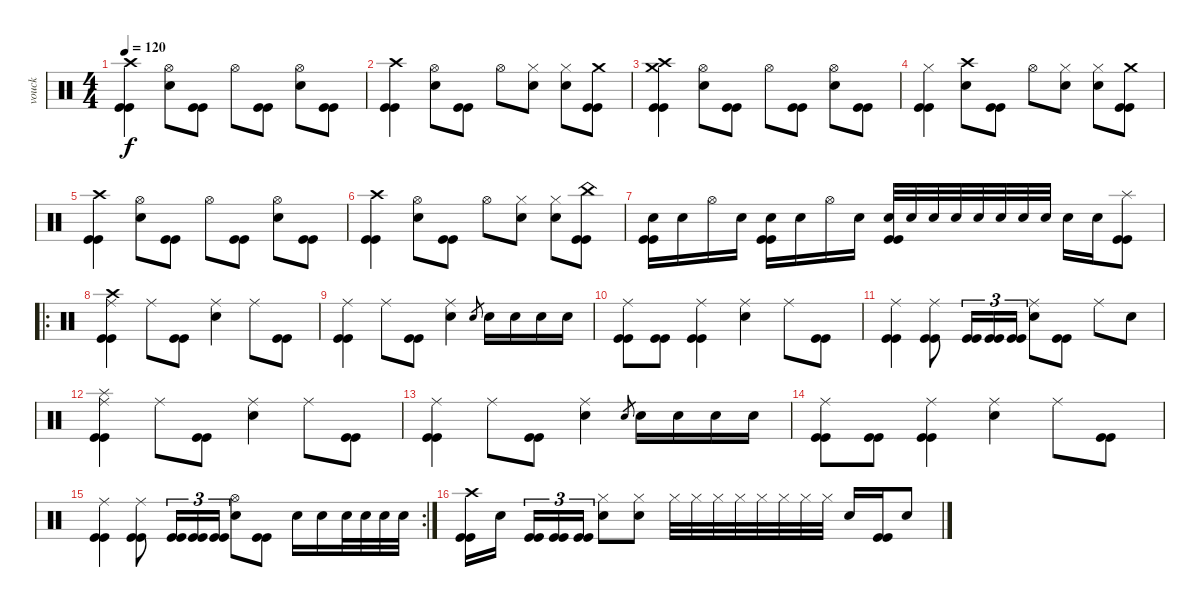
\track ("vouck" "vouck") {instrument percussion}
\staff {score}
\articulation defaults
\ts (4 4)
\tempo 120
\clef neutral
\ks c
("Crash high (hit)" "Kick (hit)" "Kick (hit)").4{dy f} ("Hi-Hat (open)" "Electric Snare (hit)").8 ("Kick (hit)" "Kick (hit)").8 "Hi-Hat (open)".8 ("Kick (hit)" "Kick (hit)").8 ("Hi-Hat (open)" "Electric Snare (hit)").8 ("Kick (hit)" "Kick (hit)").8 |
("Crash high (hit)" "Kick (hit)" "Kick (hit)").4 ("Hi-Hat (open)" "Electric Snare (hit)").8 ("Kick (hit)" "Kick (hit)").8 "Hi-Hat (open)".8 ("Hi-Hat (closed)" "Electric Snare (hit)").8 ("Hi-Hat (closed)" "Electric Snare (hit)").8 ("Crash medium (hit)" "Kick (hit)" "Kick (hit)").8 |
("Crash medium (hit)" "Crash high (hit)" "Kick (hit)" "Kick (hit)").4 ("Hi-Hat (open)" "Electric Snare (hit)").8 ("Kick (hit)" "Kick (hit)").8 "Hi-Hat (open)".8 ("Kick (hit)" "Kick (hit)").8 ("Hi-Hat (open)" "Electric Snare (hit)").8 ("Kick (hit)" "Kick (hit)").8 |
("Hi-Hat (closed)" "Kick (hit)" "Kick (hit)").4 ("Crash high (hit)" "Electric Snare (hit)").8 ("Kick (hit)" "Kick (hit)").8 "Hi-Hat (open)".8 ("Hi-Hat (closed)" "Electric Snare (hit)").8 ("Hi-Hat (closed)" "Electric Snare (hit)").8 ("Crash medium (hit)" "Kick (hit)" "Kick (hit)").8 |
("Crash high (hit)" "Kick (hit)" "Kick (hit)").4 ("Hi-Hat (open)" "Electric Snare (hit)").8 ("Kick (hit)" "Kick (hit)").8 "Hi-Hat (open)".8 ("Kick (hit)" "Kick (hit)").8 ("Hi-Hat (open)" "Electric Snare (hit)").8 ("Kick (hit)" "Kick (hit)").8 |
("Crash high (hit)" "Kick (hit)" "Kick (hit)").4 ("Hi-Hat (open)" "Electric Snare (hit)").8 ("Kick (hit)" "Kick (hit)").8 "Hi-Hat (open)".8 ("Hi-Hat (closed)" "Electric Snare (hit)").8 ("Hi-Hat (closed)" "Electric Snare (hit)").8 ("China (hit)" "Kick (hit)" "Kick (hit)").8 |
("Electric Snare (hit)" "Kick (hit)" "Kick (hit)").16 "Electric Snare (hit)".16 "Hi-Hat (open)".16 "Electric Snare (hit)".16 ("Electric Snare (hit)" "Kick (hit)" "Kick (hit)").16 "Electric Snare (hit)".16 "Hi-Hat (open)".16 "Electric Snare (hit)".16 ("Electric Snare (hit)" "Kick (hit)" "Kick (hit)").32 "Electric Snare (hit)".32 "Electric Snare (hit)".32 "Electric Snare (hit)".32 "Electric Snare (hit)".32 "Electric Snare (hit)".32 "Electric Snare (hit)".32 "Electric Snare (hit)".32 "Electric Snare (hit)".16 "Electric Snare (hit)".16 ("Splash (hit)" "Kick (hit)" "Kick (hit)").8 |
\ro
("Crash high (hit)" "Ride (middle)" "Kick (hit)" "Kick (hit)").4 "Ride (middle)".8 ("Kick (hit)" "Kick (hit)").8 ("Ride (middle)" "Electric Snare (hit)").4 "Ride (middle)".8 ("Kick (hit)" "Kick (hit)").8 |
("Ride (middle)" "Kick (hit)" "Kick (hit)").4 "Ride (middle)".8 ("Kick (hit)" "Kick (hit)").8 ("Ride (middle)" "Electric Snare (hit)").4 "Electric Snare (hit)".8{gr} "Electric Snare (hit)".16 "Electric Snare (hit)".16 "Electric Snare (hit)".16 "Electric Snare (hit)".16 |
("Ride (middle)" "Kick (hit)" "Kick (hit)").8 ("Kick (hit)" "Kick (hit)").8 ("Ride (middle)" "Kick (hit)" "Kick (hit)").4 ("Ride (middle)" "Electric Snare (hit)").4 "Ride (middle)".8 ("Kick (hit)" "Kick (hit)").8 |
("Ride (middle)" "Kick (hit)" "Kick (hit)").4 ("Ride (middle)" "Kick (hit)" "Kick (hit)").8 ("Kick (hit)" "Kick (hit)").16{tu (3 2)} ("Kick (hit)" "Kick (hit)").16{tu (3 2)} ("Kick (hit)" "Kick (hit)").16{tu (3 2)} ("Ride (middle)" "Electric Snare (hit)").8 ("Kick (hit)" "Kick (hit)").8 "Ride (middle)".8 "Electric Snare (hit)".8 |
("Splash (hit)" "Ride (middle)" "Kick (hit)" "Kick (hit)").4 "Ride (middle)".8 ("Kick (hit)" "Kick (hit)").8 ("Ride (middle)" "Electric Snare (hit)").4 "Ride (middle)".8 ("Kick (hit)" "Kick (hit)").8 |
("Ride (middle)" "Kick (hit)" "Kick (hit)").4 "Ride (middle)".8 ("Kick (hit)" "Kick (hit)").8 ("Ride (middle)" "Electric Snare (hit)").4 "Electric Snare (hit)".8{gr} "Electric Snare (hit)".16 "Electric Snare (hit)".16 "Electric Snare (hit)".16 "Electric Snare (hit)".16 |
("Ride (middle)" "Kick (hit)" "Kick (hit)").8 ("Kick (hit)" "Kick (hit)").8 ("Ride (middle)" "Kick (hit)" "Kick (hit)").4 ("Ride (middle)" "Electric Snare (hit)").4 "Ride (middle)".8 ("Kick (hit)" "Kick (hit)").8 |
\rc 2
("Ride (middle)" "Kick (hit)" "Kick (hit)").4 ("Ride (middle)" "Kick (hit)" "Kick (hit)").8 ("Kick (hit)" "Kick (hit)").16{tu (3 2)} ("Kick (hit)" "Kick (hit)").16{tu (3 2)} ("Kick (hit)" "Kick (hit)").16{tu (3 2)} ("Hi-Hat (open)" "Electric Snare (hit)").8 ("Kick (hit)" "Kick (hit)").8 "Electric Snare (hit)".16 "Electric Snare (hit)".16 "Electric Snare (hit)".32 "Electric Snare (hit)".32 "Electric Snare (hit)".32 "Electric Snare (hit)".32 |
("Crash high (hit)" "Kick (hit)" "Kick (hit)").16 "Electric Snare (hit)".16 ("Kick (hit)" "Kick (hit)").16{tu (3 2)} ("Kick (hit)" "Kick (hit)").16{tu (3 2)} ("Kick (hit)" "Kick (hit)").16{tu (3 2)} ("Hi-Hat (closed)" "Electric Snare (hit)").8 ("Hi-Hat (closed)" "Electric Snare (hit)").8 "Hi-Hat (closed)".32 "Hi-Hat (closed)".32 "Hi-Hat (closed)".32 "Hi-Hat (closed)".32 "Hi-Hat (closed)".32 "Hi-Hat (closed)".32 "Hi-Hat (closed)".32 "Hi-Hat (closed)".32 "Electric Snare (hit)".16 ("Kick (hit)" "Kick (hit)").16 "Electric Snare (hit)".8
